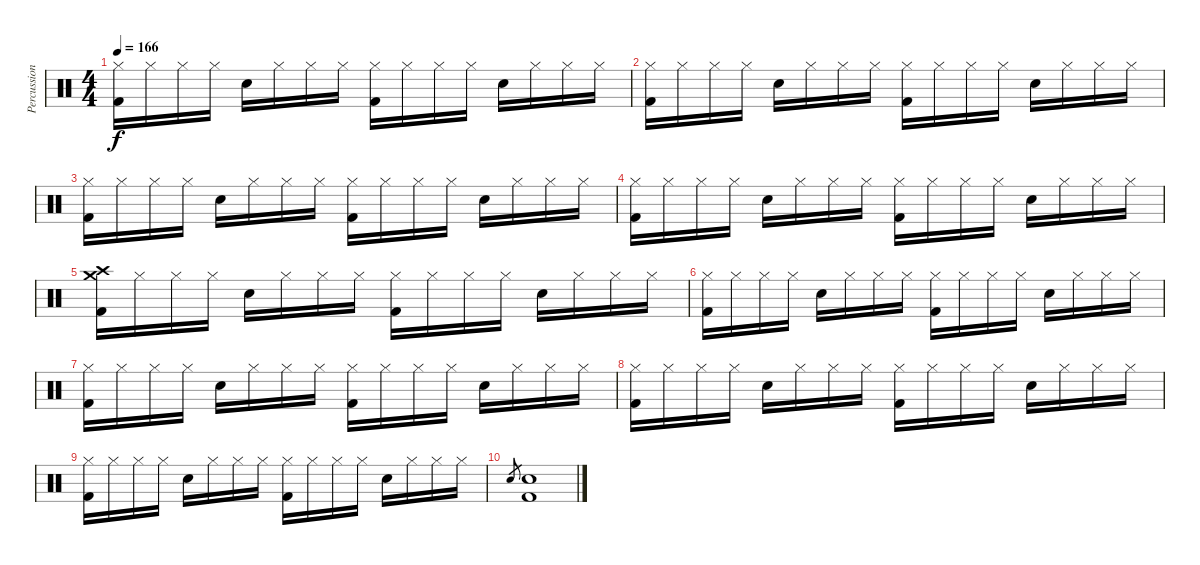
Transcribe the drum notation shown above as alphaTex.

\track ("Percussion" "Percussion") {instrument percussion}
\staff {score}
\articulation defaults
\ts (4 4)
\tempo 166
\clef neutral
\ks c
("Hi-Hat (closed)" "Kick (hit) 2").16{dy f} "Hi-Hat (closed)".16 "Hi-Hat (closed)".16 "Hi-Hat (closed)".16 "Snare (hit) 2".16 "Hi-Hat (closed)".16 "Hi-Hat (closed)".16 "Hi-Hat (closed)".16 ("Hi-Hat (closed)" "Kick (hit) 2").16 "Hi-Hat (closed)".16 "Hi-Hat (closed)".16 "Hi-Hat (closed)".16 "Snare (hit) 2".16 "Hi-Hat (closed)".16 "Hi-Hat (closed)".16 "Hi-Hat (closed)".16 |
("Hi-Hat (closed)" "Kick (hit) 2").16 "Hi-Hat (closed)".16 "Hi-Hat (closed)".16 "Hi-Hat (closed)".16 "Snare (hit) 2".16 "Hi-Hat (closed)".16 "Hi-Hat (closed)".16 "Hi-Hat (closed)".16 ("Hi-Hat (closed)" "Kick (hit) 2").16 "Hi-Hat (closed)".16 "Hi-Hat (closed)".16 "Hi-Hat (closed)".16 "Snare (hit) 2".16 "Hi-Hat (closed)".16 "Hi-Hat (closed)".16 "Hi-Hat (closed)".16 |
("Hi-Hat (closed)" "Kick (hit) 2").16 "Hi-Hat (closed)".16 "Hi-Hat (closed)".16 "Hi-Hat (closed)".16 "Snare (hit) 2".16 "Hi-Hat (closed)".16 "Hi-Hat (closed)".16 "Hi-Hat (closed)".16 ("Hi-Hat (closed)" "Kick (hit) 2").16 "Hi-Hat (closed)".16 "Hi-Hat (closed)".16 "Hi-Hat (closed)".16 "Snare (hit) 2".16 "Hi-Hat (closed)".16 "Hi-Hat (closed)".16 "Hi-Hat (closed)".16 |
("Hi-Hat (closed)" "Kick (hit) 2").16 "Hi-Hat (closed)".16 "Hi-Hat (closed)".16 "Hi-Hat (closed)".16 "Snare (hit) 2".16 "Hi-Hat (closed)".16 "Hi-Hat (closed)".16 "Hi-Hat (closed)".16 ("Hi-Hat (closed)" "Kick (hit) 2").16 "Hi-Hat (closed)".16 "Hi-Hat (closed)".16 "Hi-Hat (closed)".16 "Snare (hit) 2".16 "Hi-Hat (closed)".16 "Hi-Hat (closed)".16 "Hi-Hat (closed)".16 |
("Crash high (hit)" "Crash medium (hit)" "Kick (hit) 2").16 "Hi-Hat (closed)".16 "Hi-Hat (closed)".16 "Hi-Hat (closed)".16 "Snare (hit) 2".16 "Hi-Hat (closed)".16 "Hi-Hat (closed)".16 "Hi-Hat (closed)".16 ("Hi-Hat (closed)" "Kick (hit) 2").16 "Hi-Hat (closed)".16 "Hi-Hat (closed)".16 "Hi-Hat (closed)".16 "Snare (hit) 2".16 "Hi-Hat (closed)".16 "Hi-Hat (closed)".16 "Hi-Hat (closed)".16 |
("Hi-Hat (closed)" "Kick (hit) 2").16 "Hi-Hat (closed)".16 "Hi-Hat (closed)".16 "Hi-Hat (closed)".16 "Snare (hit) 2".16 "Hi-Hat (closed)".16 "Hi-Hat (closed)".16 "Hi-Hat (closed)".16 ("Hi-Hat (closed)" "Kick (hit) 2").16 "Hi-Hat (closed)".16 "Hi-Hat (closed)".16 "Hi-Hat (closed)".16 "Snare (hit) 2".16 "Hi-Hat (closed)".16 "Hi-Hat (closed)".16 "Hi-Hat (closed)".16 |
("Hi-Hat (closed)" "Kick (hit) 2").16 "Hi-Hat (closed)".16 "Hi-Hat (closed)".16 "Hi-Hat (closed)".16 "Snare (hit) 2".16 "Hi-Hat (closed)".16 "Hi-Hat (closed)".16 "Hi-Hat (closed)".16 ("Hi-Hat (closed)" "Kick (hit) 2").16 "Hi-Hat (closed)".16 "Hi-Hat (closed)".16 "Hi-Hat (closed)".16 "Snare (hit) 2".16 "Hi-Hat (closed)".16 "Hi-Hat (closed)".16 "Hi-Hat (closed)".16 |
("Hi-Hat (closed)" "Kick (hit) 2").16 "Hi-Hat (closed)".16 "Hi-Hat (closed)".16 "Hi-Hat (closed)".16 "Snare (hit) 2".16 "Hi-Hat (closed)".16 "Hi-Hat (closed)".16 "Hi-Hat (closed)".16 ("Hi-Hat (closed)" "Kick (hit) 2").16 "Hi-Hat (closed)".16 "Hi-Hat (closed)".16 "Hi-Hat (closed)".16 "Snare (hit) 2".16 "Hi-Hat (closed)".16 "Hi-Hat (closed)".16 "Hi-Hat (closed)".16 |
("Hi-Hat (closed)" "Kick (hit) 2").16 "Hi-Hat (closed)".16 "Hi-Hat (closed)".16 "Hi-Hat (closed)".16 "Snare (hit) 2".16 "Hi-Hat (closed)".16 "Hi-Hat (closed)".16 "Hi-Hat (closed)".16 ("Hi-Hat (closed)" "Kick (hit) 2").16 "Hi-Hat (closed)".16 "Hi-Hat (closed)".16 "Hi-Hat (closed)".16 "Snare (hit) 2".16 "Hi-Hat (closed)".16 "Hi-Hat (closed)".16 "Hi-Hat (closed)".16 |
"Electric Snare (hit)".8{gr} ("Snare (hit) 2" "Kick (hit) 2").1
